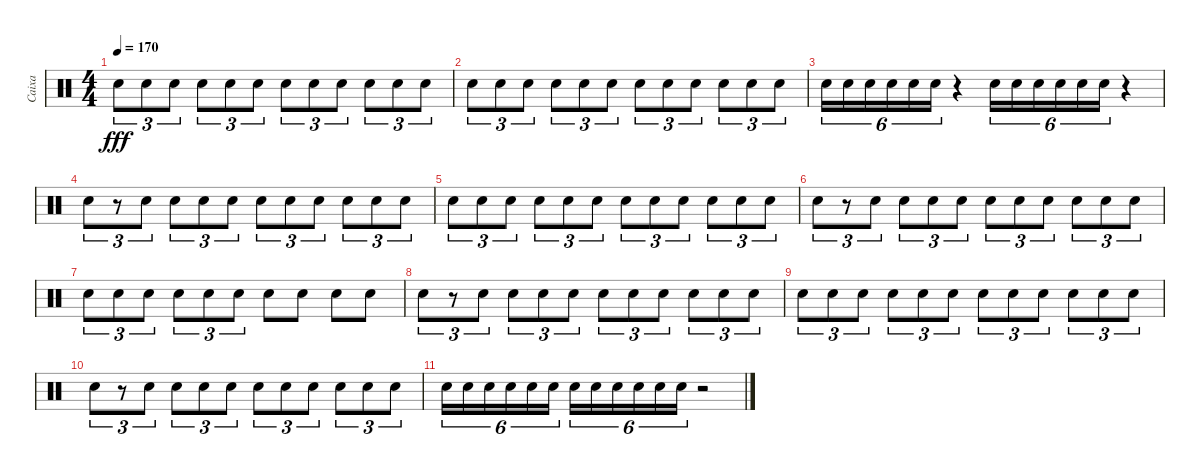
\track ("Caixa" "Caixa") {instrument percussion}
\staff {score}
\articulation defaults
\ts (4 4)
\tempo 170
\clef neutral
\ks c "Electric Snare (hit)".8{tu (3 2) dy fff} "Electric Snare (hit)".8{tu (3 2)} "Electric Snare (hit)".8{tu (3 2)} "Electric Snare (hit)".8{tu (3 2)} "Electric Snare (hit)".8{tu (3 2)} "Electric Snare (hit)".8{tu (3 2)} "Electric Snare (hit)".8{tu (3 2)} "Electric Snare (hit)".8{tu (3 2)} "Electric Snare (hit)".8{tu (3 2)} "Electric Snare (hit)".8{tu (3 2)} "Electric Snare (hit)".8{tu (3 2)} "Electric Snare (hit)".8{tu (3 2)}
|
"Electric Snare (hit)".8{tu (3 2)} "Electric Snare (hit)".8{tu (3 2)} "Electric Snare (hit)".8{tu (3 2)} "Electric Snare (hit)".8{tu (3 2)} "Electric Snare (hit)".8{tu (3 2)} "Electric Snare (hit)".8{tu (3 2)} "Electric Snare (hit)".8{tu (3 2)} "Electric Snare (hit)".8{tu (3 2)} "Electric Snare (hit)".8{tu (3 2)} "Electric Snare (hit)".8{tu (3 2)} "Electric Snare (hit)".8{tu (3 2)} "Electric Snare (hit)".8{tu (3 2)} |
"Electric Snare (hit)".16{tu (6 4)} "Electric Snare (hit)".16{tu (6 4)} "Electric Snare (hit)".16{tu (6 4)} "Electric Snare (hit)".16{tu (6 4)} "Electric Snare (hit)".16{tu (6 4)} "Electric Snare (hit)".16{tu (6 4)} r.4 "Electric Snare (hit)".16{tu (6 4)} "Electric Snare (hit)".16{tu (6 4)} "Electric Snare (hit)".16{tu (6 4)} "Electric Snare (hit)".16{tu (6 4)} "Electric Snare (hit)".16{tu (6 4)} "Electric Snare (hit)".16{tu (6 4)} r.4 |
"Electric Snare (hit)".8{tu (3 2)} r.8{tu (3 2)} "Electric Snare (hit)".8{tu (3 2)} "Electric Snare (hit)".8{tu (3 2)} "Electric Snare (hit)".8{tu (3 2)} "Electric Snare (hit)".8{tu (3 2)} "Electric Snare (hit)".8{tu (3 2)} "Electric Snare (hit)".8{tu (3 2)} "Electric Snare (hit)".8{tu (3 2)} "Electric Snare (hit)".8{tu (3 2)} "Electric Snare (hit)".8{tu (3 2)} "Electric Snare (hit)".8{tu (3 2)} |
"Electric Snare (hit)".8{tu (3 2)} "Electric Snare (hit)".8{tu (3 2)} "Electric Snare (hit)".8{tu (3 2)} "Electric Snare (hit)".8{tu (3 2)} "Electric Snare (hit)".8{tu (3 2)} "Electric Snare (hit)".8{tu (3 2)} "Electric Snare (hit)".8{tu (3 2)} "Electric Snare (hit)".8{tu (3 2)} "Electric Snare (hit)".8{tu (3 2)} "Electric Snare (hit)".8{tu (3 2)} "Electric Snare (hit)".8{tu (3 2)} "Electric Snare (hit)".8{tu (3 2)} |
"Electric Snare (hit)".8{tu (3 2)} r.8{tu (3 2)} "Electric Snare (hit)".8{tu (3 2)} "Electric Snare (hit)".8{tu (3 2)} "Electric Snare (hit)".8{tu (3 2)} "Electric Snare (hit)".8{tu (3 2)} "Electric Snare (hit)".8{tu (3 2)} "Electric Snare (hit)".8{tu (3 2)} "Electric Snare (hit)".8{tu (3 2)} "Electric Snare (hit)".8{tu (3 2)} "Electric Snare (hit)".8{tu (3 2)} "Electric Snare (hit)".8{tu (3 2)} |
"Electric Snare (hit)".8{tu (3 2)} "Electric Snare (hit)".8{tu (3 2)} "Electric Snare (hit)".8{tu (3 2)} "Electric Snare (hit)".8{tu (3 2)} "Electric Snare (hit)".8{tu (3 2)} "Electric Snare (hit)".8{tu (3 2)} "Electric Snare (hit)".8 "Electric Snare (hit)".8 "Electric Snare (hit)".8 "Electric Snare (hit)".8 |
"Electric Snare (hit)".8{tu (3 2)} r.8{tu (3 2)} "Electric Snare (hit)".8{tu (3 2)} "Electric Snare (hit)".8{tu (3 2)} "Electric Snare (hit)".8{tu (3 2)} "Electric Snare (hit)".8{tu (3 2)} "Electric Snare (hit)".8{tu (3 2)} "Electric Snare (hit)".8{tu (3 2)} "Electric Snare (hit)".8{tu (3 2)} "Electric Snare (hit)".8{tu (3 2)} "Electric Snare (hit)".8{tu (3 2)} "Electric Snare (hit)".8{tu (3 2)} |
"Electric Snare (hit)".8{tu (3 2)} "Electric Snare (hit)".8{tu (3 2)} "Electric Snare (hit)".8{tu (3 2)} "Electric Snare (hit)".8{tu (3 2)} "Electric Snare (hit)".8{tu (3 2)} "Electric Snare (hit)".8{tu (3 2)} "Electric Snare (hit)".8{tu (3 2)} "Electric Snare (hit)".8{tu (3 2)} "Electric Snare (hit)".8{tu (3 2)} "Electric Snare (hit)".8{tu (3 2)} "Electric Snare (hit)".8{tu (3 2)} "Electric Snare (hit)".8{tu (3 2)} |
"Electric Snare (hit)".8{tu (3 2)} r.8{tu (3 2)} "Electric Snare (hit)".8{tu (3 2)} "Electric Snare (hit)".8{tu (3 2)} "Electric Snare (hit)".8{tu (3 2)} "Electric Snare (hit)".8{tu (3 2)} "Electric Snare (hit)".8{tu (3 2)} "Electric Snare (hit)".8{tu (3 2)} "Electric Snare (hit)".8{tu (3 2)} "Electric Snare (hit)".8{tu (3 2)} "Electric Snare (hit)".8{tu (3 2)} "Electric Snare (hit)".8{tu (3 2)} |
"Electric Snare (hit)".16{tu (6 4)} "Electric Snare (hit)".16{tu (6 4)} "Electric Snare (hit)".16{tu (6 4)} "Electric Snare (hit)".16{tu (6 4)} "Electric Snare (hit)".16{tu (6 4)} "Electric Snare (hit)".16{tu (6 4)} "Electric Snare (hit)".16{tu (6 4)} "Electric Snare (hit)".16{tu (6 4)} "Electric Snare (hit)".16{tu (6 4)} "Electric Snare (hit)".16{tu (6 4)} "Electric Snare (hit)".16{tu (6 4)} "Electric Snare (hit)".16{tu (6 4)} r.2
